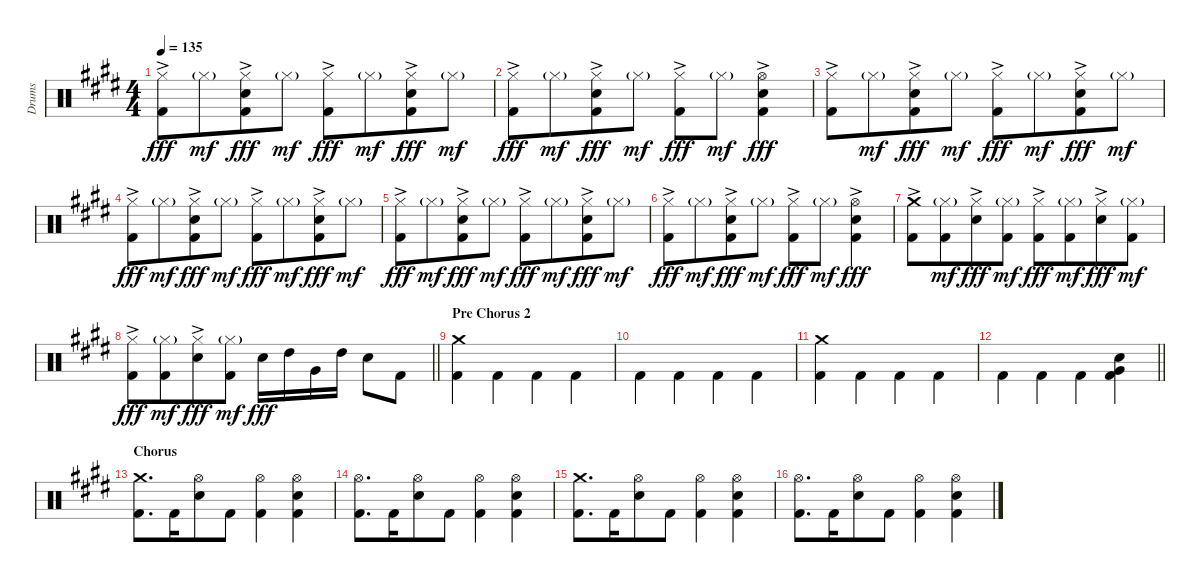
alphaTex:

\track ("Drums" "Drums") {instrument percussion}
\staff {score}
\articulation defaults
\ts (4 4)
\tempo 135
\clef neutral
\ks c#minor
("Kick (hit) 2" "Hi-Hat (closed)"{ac}).8{dy fff} "Hi-Hat (closed)"{g}.8{dy mf beam merge} ("Kick (hit) 2" "Hi-Hat (closed)"{ac} "Snare (hit) 2").8{dy fff} "Hi-Hat (closed)"{g}.8{dy mf beam split} ("Kick (hit) 2" "Hi-Hat (closed)"{ac}).8{dy fff} "Hi-Hat (closed)"{g}.8{dy mf beam merge} ("Kick (hit) 2" "Hi-Hat (closed)"{ac} "Snare (hit) 2").8{dy fff} "Hi-Hat (closed)"{g}.8{dy mf} |
("Kick (hit) 2" "Hi-Hat (closed)"{ac}).8{dy fff} "Hi-Hat (closed)"{g}.8{dy mf beam merge} ("Kick (hit) 2" "Hi-Hat (closed)"{ac} "Snare (hit) 2").8{dy fff} "Hi-Hat (closed)"{g}.8{dy mf beam split} ("Kick (hit) 2" "Hi-Hat (closed)"{ac}).8{dy fff} "Hi-Hat (closed)"{g}.8{dy mf beam merge} ("Kick (hit) 2" "Hi-Hat (open)"{ac} "Snare (hit) 2").4{dy fff} |
("Kick (hit) 2" "Hi-Hat (closed)"{ac}).8 "Hi-Hat (closed)"{g}.8{dy mf beam merge} ("Kick (hit) 2" "Hi-Hat (closed)"{ac} "Snare (hit) 2").8{dy fff} "Hi-Hat (closed)"{g}.8{dy mf beam split} ("Kick (hit) 2" "Hi-Hat (closed)"{ac}).8{dy fff} "Hi-Hat (closed)"{g}.8{dy mf beam merge} ("Kick (hit) 2" "Hi-Hat (closed)"{ac} "Snare (hit) 2").8{dy fff} "Hi-Hat (closed)"{g}.8{dy mf} |
("Kick (hit) 2" "Hi-Hat (closed)"{ac}).8{dy fff} "Hi-Hat (closed)"{g}.8{dy mf beam merge} ("Kick (hit) 2" "Hi-Hat (closed)"{ac} "Snare (hit) 2").8{dy fff} "Hi-Hat (closed)"{g}.8{dy mf beam split} ("Kick (hit) 2" "Hi-Hat (closed)"{ac}).8{dy fff} "Hi-Hat (closed)"{g}.8{dy mf beam merge} ("Kick (hit) 2" "Hi-Hat (closed)"{ac} "Snare (hit) 2").8{dy fff} "Hi-Hat (closed)"{g}.8{dy mf} |
("Kick (hit) 2" "Hi-Hat (closed)"{ac}).8{dy fff} "Hi-Hat (closed)"{g}.8{dy mf beam merge} ("Kick (hit) 2" "Hi-Hat (closed)"{ac} "Snare (hit) 2").8{dy fff} "Hi-Hat (closed)"{g}.8{dy mf beam split} ("Kick (hit) 2" "Hi-Hat (closed)"{ac}).8{dy fff} "Hi-Hat (closed)"{g}.8{dy mf beam merge} ("Kick (hit) 2" "Hi-Hat (closed)"{ac} "Snare (hit) 2").8{dy fff} "Hi-Hat (closed)"{g}.8{dy mf} |
("Kick (hit) 2" "Hi-Hat (closed)"{ac}).8{dy fff} "Hi-Hat (closed)"{g}.8{dy mf beam merge} ("Kick (hit) 2" "Hi-Hat (closed)"{ac} "Snare (hit) 2").8{dy fff} "Hi-Hat (closed)"{g}.8{dy mf beam split} ("Kick (hit) 2" "Hi-Hat (closed)"{ac}).8{dy fff} "Hi-Hat (closed)"{g}.8{dy mf beam merge} ("Kick (hit) 2" "Hi-Hat (open)"{ac} "Snare (hit) 2").4{dy fff} |
("Kick (hit) 2" "Crash medium (hit)"{ac}).8 ("Kick (hit) 2" "Hi-Hat (closed)"{g}).8{dy mf beam merge} ("Hi-Hat (closed)"{ac} "Snare (hit) 2").8{dy fff} ("Kick (hit) 2" "Hi-Hat (closed)"{g}).8{dy mf beam split} ("Kick (hit) 2" "Hi-Hat (closed)"{ac}).8{dy fff} ("Kick (hit) 2" "Hi-Hat (closed)"{g}).8{dy mf beam merge} ("Hi-Hat (closed)"{ac} "Snare (hit) 2").8{dy fff} ("Kick (hit) 2" "Hi-Hat (closed)"{g}).8{dy mf} |
\barLineRight lightlight
("Kick (hit) 2" "Hi-Hat (closed)"{ac}).8{dy fff} ("Kick (hit) 2" "Hi-Hat (closed)"{g}).8{dy mf beam merge} ("Hi-Hat (closed)"{ac} "Snare (hit) 2").8{dy fff} ("Kick (hit) 2" "Hi-Hat (closed)"{g}).8{dy mf} "Snare (hit) 2".16{dy fff} "High Tom (hit)".16 "Very Low Tom (hit)".16 "High Tom (hit)".16 "Snare (hit) 2".8{beam Down} "Kick (hit) 2".8{beam Down} |
\section ("" "Pre Chorus 2")
("Kick (hit) 2" "Crash medium (hit)").4{beam merge} "Kick (hit) 2".4{beam Down} "Kick (hit) 2".4{beam Down beam merge} "Kick (hit) 2".4{beam Down} |
"Kick (hit) 2".4{beam Down beam merge} "Kick (hit) 2".4{beam Down} "Kick (hit) 2".4{beam Down beam merge} "Kick (hit) 2".4{beam Down} |
("Kick (hit) 2" "Crash medium (hit)").4{beam merge} "Kick (hit) 2".4{beam Down} "Kick (hit) 2".4{beam Down beam merge} "Kick (hit) 2".4{beam Down} |
\barLineRight lightlight "Kick (hit) 2".4{beam Down beam merge} "Kick (hit) 2".4{beam Down} "Kick (hit) 2".4{beam Down beam merge}
("Kick (hit) 2" "Very Low Tom (hit)" "Snare (hit) 2").4{beam Down} |
\section ("" "Chorus")
("Kick (hit) 2" "Crash medium (hit)").8{d} "Kick (hit) 2".16{beam merge} ("Hi-Hat (open)" "Snare (hit) 2").8 "Kick (hit) 2".8 ("Kick (hit) 2" "Hi-Hat (open)").4{beam Down} ("Kick (hit) 2" "Hi-Hat (open)" "Snare (hit) 2").4 |
("Kick (hit) 2" "Hi-Hat (open)").8{d} "Kick (hit) 2".16{beam merge} ("Hi-Hat (open)" "Snare (hit) 2").8 "Kick (hit) 2".8 ("Kick (hit) 2" "Hi-Hat (open)").4{beam Down} ("Kick (hit) 2" "Hi-Hat (open)" "Snare (hit) 2").4 |
("Kick (hit) 2" "Crash medium (hit)").8{d} "Kick (hit) 2".16{beam merge} ("Hi-Hat (open)" "Snare (hit) 2").8 "Kick (hit) 2".8 ("Kick (hit) 2" "Hi-Hat (open)").4{beam Down} ("Kick (hit) 2" "Hi-Hat (open)" "Snare (hit) 2").4 |
("Kick (hit) 2" "Hi-Hat (open)").8{d} "Kick (hit) 2".16{beam merge} ("Hi-Hat (open)" "Snare (hit) 2").8 "Kick (hit) 2".8 ("Kick (hit) 2" "Hi-Hat (open)").4{beam Down} ("Kick (hit) 2" "Hi-Hat (open)" "Snare (hit) 2").4
